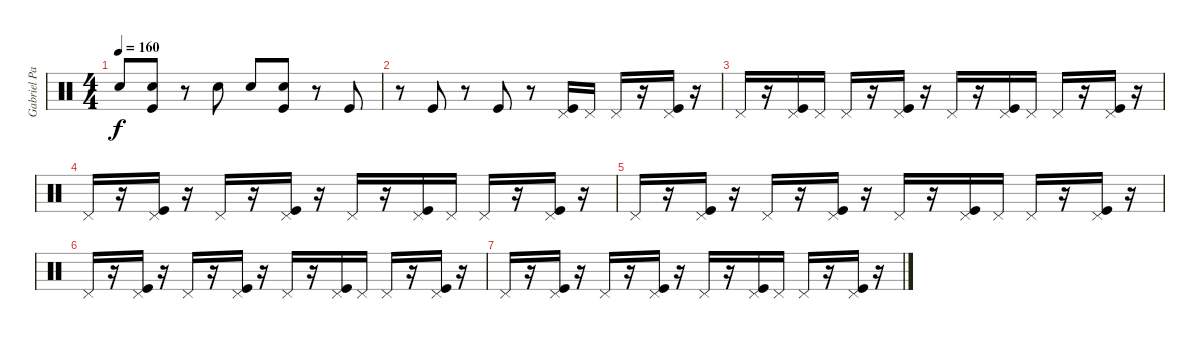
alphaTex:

\track ("Gabriel Parra" "Gabriel Pa") {instrument percussion}
\staff {score}
\articulation defaults
\ts (4 4)
\tempo 160
\clef neutral
\ks c "Snare (hit) 2".8{dy f}
("Snare (hit) 2" "Kick (hit)").8 r.8 "Snare (hit) 2".8 "Snare (hit) 2".8 ("Snare (hit) 2" "Kick (hit)").8 r.8 "Kick (hit)".8 |
r.8 "Kick (hit)".8 r.8 "Kick (hit)".8 r.8 ("Pedal Hi-Hat (hit)" "Kick (hit)").16 "Pedal Hi-Hat (hit)".16 "Pedal Hi-Hat (hit)".16 r.16 ("Pedal Hi-Hat (hit)" "Kick (hit)").16 r.16 |
"Pedal Hi-Hat (hit)".16 r.16 ("Pedal Hi-Hat (hit)" "Kick (hit)").16 "Pedal Hi-Hat (hit)".16 "Pedal Hi-Hat (hit)".16 r.16 ("Pedal Hi-Hat (hit)" "Kick (hit)").16 r.16 "Pedal Hi-Hat (hit)".16 r.16 ("Pedal Hi-Hat (hit)" "Kick (hit)").16 "Pedal Hi-Hat (hit)".16 "Pedal Hi-Hat (hit)".16 r.16 ("Pedal Hi-Hat (hit)" "Kick (hit)").16 r.16 |
"Pedal Hi-Hat (hit)".16 r.16 ("Pedal Hi-Hat (hit)" "Kick (hit)").16 r.16 "Pedal Hi-Hat (hit)".16 r.16 ("Pedal Hi-Hat (hit)" "Kick (hit)").16 r.16 "Pedal Hi-Hat (hit)".16 r.16 ("Pedal Hi-Hat (hit)" "Kick (hit)").16 "Pedal Hi-Hat (hit)".16 "Pedal Hi-Hat (hit)".16 r.16 ("Pedal Hi-Hat (hit)" "Kick (hit)").16 r.16 |
"Pedal Hi-Hat (hit)".16 r.16 ("Pedal Hi-Hat (hit)" "Kick (hit)").16 r.16 "Pedal Hi-Hat (hit)".16 r.16 ("Pedal Hi-Hat (hit)" "Kick (hit)").16 r.16 "Pedal Hi-Hat (hit)".16 r.16 ("Pedal Hi-Hat (hit)" "Kick (hit)").16 "Pedal Hi-Hat (hit)".16 "Pedal Hi-Hat (hit)".16 r.16 ("Pedal Hi-Hat (hit)" "Kick (hit)").16 r.16 |
"Pedal Hi-Hat (hit)".16 r.16 ("Pedal Hi-Hat (hit)" "Kick (hit)").16 r.16 "Pedal Hi-Hat (hit)".16 r.16 ("Pedal Hi-Hat (hit)" "Kick (hit)").16 r.16 "Pedal Hi-Hat (hit)".16 r.16 ("Pedal Hi-Hat (hit)" "Kick (hit)").16 "Pedal Hi-Hat (hit)".16 "Pedal Hi-Hat (hit)".16 r.16 ("Pedal Hi-Hat (hit)" "Kick (hit)").16 r.16 |
"Pedal Hi-Hat (hit)".16 r.16 ("Pedal Hi-Hat (hit)" "Kick (hit)").16 r.16 "Pedal Hi-Hat (hit)".16 r.16 ("Pedal Hi-Hat (hit)" "Kick (hit)").16 r.16 "Pedal Hi-Hat (hit)".16 r.16 ("Pedal Hi-Hat (hit)" "Kick (hit)").16 "Pedal Hi-Hat (hit)".16 "Pedal Hi-Hat (hit)".16 r.16 ("Pedal Hi-Hat (hit)" "Kick (hit)").16 r.16
